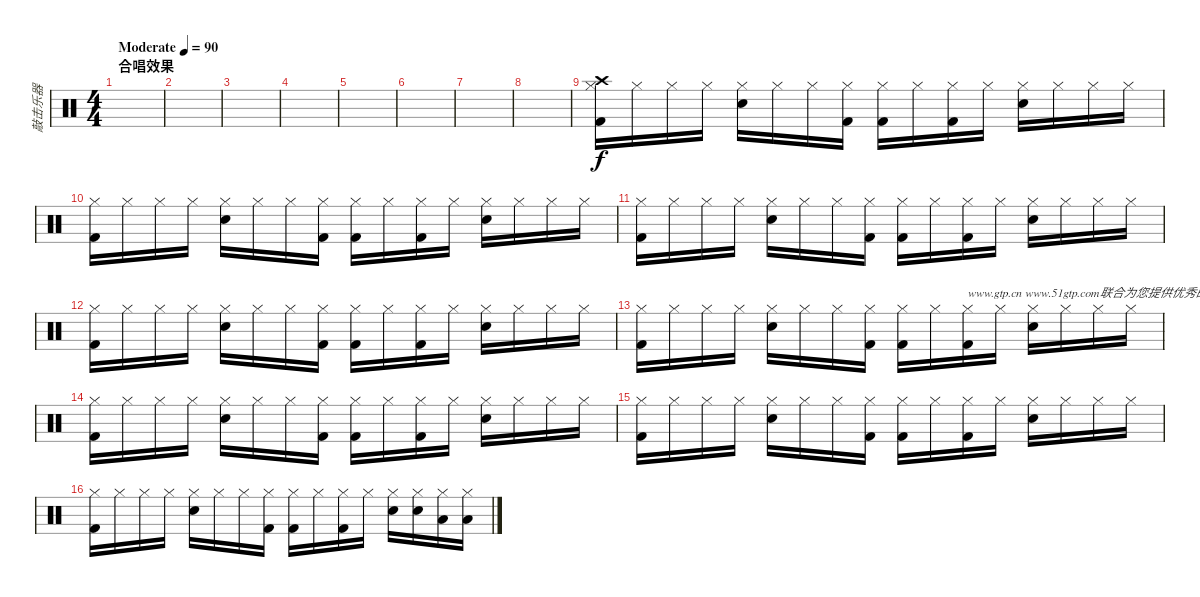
\track ("敲击乐器" "敲击乐器") {instrument percussion}
\staff {score}
\articulation defaults
\ts (4 4)
\section ("" "合唱效果")
\tempo (90 "Moderate")
\clef neutral
\ks c
|
|
|
|
|
|
|
|
("Hi-Hat (closed)" "Kick (hit) 2" "Crash high (hit)").16 "Hi-Hat (closed)".16 "Hi-Hat (closed)".16 "Hi-Hat (closed)".16 ("Hi-Hat (closed)" "Electric Snare (hit)").16 "Hi-Hat (closed)".16 "Hi-Hat (closed)".16 ("Hi-Hat (closed)" "Kick (hit) 2").16 ("Hi-Hat (closed)" "Kick (hit) 2").16 "Hi-Hat (closed)".16 ("Hi-Hat (closed)" "Kick (hit) 2").16 "Hi-Hat (closed)".16 ("Hi-Hat (closed)" "Electric Snare (hit)").16 "Hi-Hat (closed)".16 "Hi-Hat (closed)".16 "Hi-Hat (closed)".16 |
("Hi-Hat (closed)" "Kick (hit) 2").16 "Hi-Hat (closed)".16 "Hi-Hat (closed)".16 "Hi-Hat (closed)".16 ("Hi-Hat (closed)" "Electric Snare (hit)").16 "Hi-Hat (closed)".16 "Hi-Hat (closed)".16 ("Hi-Hat (closed)" "Kick (hit) 2").16 ("Hi-Hat (closed)" "Kick (hit) 2").16 "Hi-Hat (closed)".16 ("Hi-Hat (closed)" "Kick (hit) 2").16 "Hi-Hat (closed)".16 ("Hi-Hat (closed)" "Electric Snare (hit)").16 "Hi-Hat (closed)".16 "Hi-Hat (closed)".16 "Hi-Hat (closed)".16 |
("Hi-Hat (closed)" "Kick (hit) 2").16 "Hi-Hat (closed)".16 "Hi-Hat (closed)".16 "Hi-Hat (closed)".16 ("Hi-Hat (closed)" "Electric Snare (hit)").16 "Hi-Hat (closed)".16 "Hi-Hat (closed)".16 ("Hi-Hat (closed)" "Kick (hit) 2").16 ("Hi-Hat (closed)" "Kick (hit) 2").16 "Hi-Hat (closed)".16 ("Hi-Hat (closed)" "Kick (hit) 2").16 "Hi-Hat (closed)".16 ("Hi-Hat (closed)" "Electric Snare (hit)").16 "Hi-Hat (closed)".16 "Hi-Hat (closed)".16 "Hi-Hat (closed)".16 |
("Hi-Hat (closed)" "Kick (hit) 2").16 "Hi-Hat (closed)".16 "Hi-Hat (closed)".16 "Hi-Hat (closed)".16 ("Hi-Hat (closed)" "Electric Snare (hit)").16 "Hi-Hat (closed)".16 "Hi-Hat (closed)".16 ("Hi-Hat (closed)" "Kick (hit) 2").16 ("Hi-Hat (closed)" "Kick (hit) 2").16 "Hi-Hat (closed)".16 ("Hi-Hat (closed)" "Kick (hit) 2").16 "Hi-Hat (closed)".16 ("Hi-Hat (closed)" "Electric Snare (hit)").16 "Hi-Hat (closed)".16 "Hi-Hat (closed)".16 "Hi-Hat (closed)".16 |
("Hi-Hat (closed)" "Kick (hit) 2").16 "Hi-Hat (closed)".16 "Hi-Hat (closed)".16 "Hi-Hat (closed)".16 ("Hi-Hat (closed)" "Electric Snare (hit)").16 "Hi-Hat (closed)".16 "Hi-Hat (closed)".16 ("Hi-Hat (closed)" "Kick (hit) 2").16 ("Hi-Hat (closed)" "Kick (hit) 2").16 "Hi-Hat (closed)".16 ("Hi-Hat (closed)" "Kick (hit) 2").16{txt "www.gtp.cn www.51gtp.com联合为您提供优秀的GTP!"} "Hi-Hat (closed)".16 ("Hi-Hat (closed)" "Electric Snare (hit)").16 "Hi-Hat (closed)".16 "Hi-Hat (closed)".16 "Hi-Hat (closed)".16 |
("Hi-Hat (closed)" "Kick (hit) 2").16 "Hi-Hat (closed)".16 "Hi-Hat (closed)".16 "Hi-Hat (closed)".16 ("Hi-Hat (closed)" "Electric Snare (hit)").16 "Hi-Hat (closed)".16 "Hi-Hat (closed)".16 ("Hi-Hat (closed)" "Kick (hit) 2").16 ("Hi-Hat (closed)" "Kick (hit) 2").16 "Hi-Hat (closed)".16 ("Hi-Hat (closed)" "Kick (hit) 2").16 "Hi-Hat (closed)".16 ("Hi-Hat (closed)" "Electric Snare (hit)").16 "Hi-Hat (closed)".16 "Hi-Hat (closed)".16 "Hi-Hat (closed)".16 |
("Hi-Hat (closed)" "Kick (hit) 2").16 "Hi-Hat (closed)".16 "Hi-Hat (closed)".16 "Hi-Hat (closed)".16 ("Hi-Hat (closed)" "Electric Snare (hit)").16 "Hi-Hat (closed)".16 "Hi-Hat (closed)".16 ("Hi-Hat (closed)" "Kick (hit) 2").16 ("Hi-Hat (closed)" "Kick (hit) 2").16 "Hi-Hat (closed)".16 ("Hi-Hat (closed)" "Kick (hit) 2").16 "Hi-Hat (closed)".16 ("Hi-Hat (closed)" "Electric Snare (hit)").16 "Hi-Hat (closed)".16 "Hi-Hat (closed)".16 "Hi-Hat (closed)".16 |
("Hi-Hat (closed)" "Kick (hit) 2").16 "Hi-Hat (closed)".16 "Hi-Hat (closed)".16 "Hi-Hat (closed)".16 ("Hi-Hat (closed)" "Electric Snare (hit)").16 "Hi-Hat (closed)".16 "Hi-Hat (closed)".16 ("Hi-Hat (closed)" "Kick (hit) 2").16 ("Hi-Hat (closed)" "Kick (hit) 2").16 "Hi-Hat (closed)".16 ("Hi-Hat (closed)" "Kick (hit) 2").16 "Hi-Hat (closed)".16 ("Hi-Hat (closed)" "Electric Snare (hit)").16 ("Hi-Hat (closed)" "Electric Snare (hit)").16 ("Hi-Hat (closed)" "Low Floor Tom (hit)").16 ("Hi-Hat (closed)" "Low Floor Tom (hit)").16
